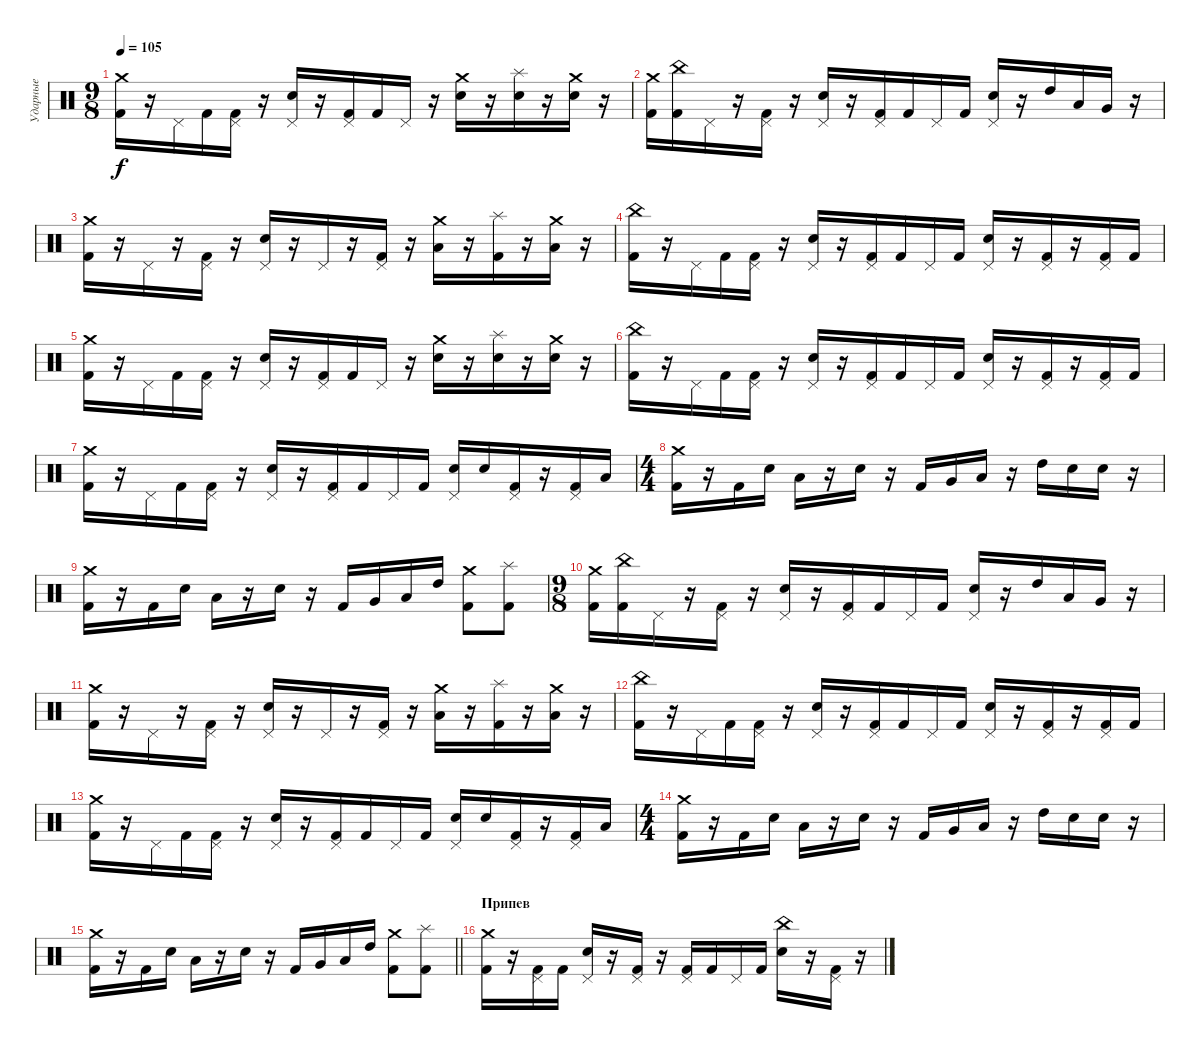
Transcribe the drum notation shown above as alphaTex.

\track ("Ударные" "Ударные") {instrument percussion}
\staff {score}
\articulation defaults
\ts (9 8)
\tempo 105
\clef neutral
\ks c
("Kick (hit) 2" "Crash medium (hit)").16{dy f} r.16 "Pedal Hi-Hat (hit)".16 "Kick (hit) 2".16 ("Kick (hit) 2" "Pedal Hi-Hat (hit)").16 r.16 ("Electric Snare (hit)" "Pedal Hi-Hat (hit)").16 r.16 ("Kick (hit) 2" "Pedal Hi-Hat (hit)").16 "Kick (hit) 2".16 "Pedal Hi-Hat (hit)".16 r.16 ("Electric Snare (hit)" "Crash medium (hit)").16 r.16 ("Electric Snare (hit)" "Splash (hit)").16 r.16 ("Electric Snare (hit)" "Crash medium (hit)").16 r.16 |
("Crash medium (hit)" "Kick (hit) 2").16 ("China (hit)" "Kick (hit) 2").16 "Pedal Hi-Hat (hit)".16 r.16 ("Kick (hit) 2" "Pedal Hi-Hat (hit)").16 r.16 ("Electric Snare (hit)" "Pedal Hi-Hat (hit)").16 r.16 ("Kick (hit) 2" "Pedal Hi-Hat (hit)").16 "Kick (hit) 2".16 "Pedal Hi-Hat (hit)".16 "Kick (hit) 2".16 ("Electric Snare (hit)" "Pedal Hi-Hat (hit)").16 r.16 "High Tom (hit)".16 "Low Tom (hit)".16 "Very Low Tom (hit)".16 r.16 |
("Crash medium (hit)" "Kick (hit) 2").16 r.16 "Pedal Hi-Hat (hit)".16 r.16 ("Kick (hit) 2" "Pedal Hi-Hat (hit)").16 r.16 ("Electric Snare (hit)" "Pedal Hi-Hat (hit)").16 r.16 "Pedal Hi-Hat (hit)".16 r.16 ("Kick (hit) 2" "Pedal Hi-Hat (hit)").16 r.16 ("Low Tom (hit)" "Crash medium (hit)").16 r.16 ("Kick (hit) 2" "Splash (hit)").16 r.16 ("Low Tom (hit)" "Crash medium (hit)").16 r.16 |
("Kick (hit) 2" "China (hit)").16 r.16 "Pedal Hi-Hat (hit)".16 "Kick (hit) 2".16 ("Kick (hit) 2" "Pedal Hi-Hat (hit)").16 r.16 ("Electric Snare (hit)" "Pedal Hi-Hat (hit)").16 r.16 ("Kick (hit) 2" "Pedal Hi-Hat (hit)").16 "Kick (hit) 2".16 "Pedal Hi-Hat (hit)".16 "Kick (hit) 2".16 ("Electric Snare (hit)" "Pedal Hi-Hat (hit)").16 r.16 ("Kick (hit) 2" "Pedal Hi-Hat (hit)").16 r.16 ("Kick (hit) 2" "Pedal Hi-Hat (hit)").16 "Kick (hit) 2".16 |
("Kick (hit) 2" "Crash medium (hit)").16 r.16 "Pedal Hi-Hat (hit)".16 "Kick (hit) 2".16 ("Kick (hit) 2" "Pedal Hi-Hat (hit)").16 r.16 ("Electric Snare (hit)" "Pedal Hi-Hat (hit)").16 r.16 ("Kick (hit) 2" "Pedal Hi-Hat (hit)").16 "Kick (hit) 2".16 "Pedal Hi-Hat (hit)".16 r.16 ("Electric Snare (hit)" "Crash medium (hit)").16 r.16 ("Electric Snare (hit)" "Splash (hit)").16 r.16 ("Electric Snare (hit)" "Crash medium (hit)").16 r.16 |
("Kick (hit) 2" "China (hit)").16 r.16 "Pedal Hi-Hat (hit)".16 "Kick (hit) 2".16 ("Kick (hit) 2" "Pedal Hi-Hat (hit)").16 r.16 ("Electric Snare (hit)" "Pedal Hi-Hat (hit)").16 r.16 ("Kick (hit) 2" "Pedal Hi-Hat (hit)").16 "Kick (hit) 2".16 "Pedal Hi-Hat (hit)".16 "Kick (hit) 2".16 ("Electric Snare (hit)" "Pedal Hi-Hat (hit)").16 r.16 ("Kick (hit) 2" "Pedal Hi-Hat (hit)").16 r.16 ("Kick (hit) 2" "Pedal Hi-Hat (hit)").16 "Kick (hit) 2".16 |
("Kick (hit) 2" "Crash medium (hit)").16 r.16 "Pedal Hi-Hat (hit)".16 "Kick (hit) 2".16 ("Kick (hit) 2" "Pedal Hi-Hat (hit)").16 r.16 ("Electric Snare (hit)" "Pedal Hi-Hat (hit)").16 r.16 ("Kick (hit) 2" "Pedal Hi-Hat (hit)").16 "Kick (hit) 2".16 "Pedal Hi-Hat (hit)".16 "Kick (hit) 2".16 ("Electric Snare (hit)" "Pedal Hi-Hat (hit)").16 "Electric Snare (hit)".16 ("Kick (hit) 2" "Pedal Hi-Hat (hit)").16 r.16 ("Kick (hit) 2" "Pedal Hi-Hat (hit)").16 "Low Tom (hit)".16 |
\ts (4 4)
("Crash medium (hit)" "Kick (hit) 2").16 r.16 "Kick (hit) 2".16 "Electric Snare (hit)".16 "Low Tom (hit)".16 r.16 "Electric Snare (hit)".16 r.16 "Kick (hit) 2".16 "Very Low Tom (hit)".16 "Low Tom (hit)".16 r.16 "High Tom (hit)".16 "Electric Snare (hit)".16 "Electric Snare (hit)".16 r.16 |
("Crash medium (hit)" "Kick (hit) 2").16 r.16 "Kick (hit) 2".16 "Electric Snare (hit)".16 "Low Tom (hit)".16 r.16 "Electric Snare (hit)".16 r.16 "Kick (hit) 2".16 "Very Low Tom (hit)".16 "Low Tom (hit)".16 "High Tom (hit)".16 ("Crash medium (hit)" "Kick (hit) 2").8 ("Splash (hit)" "Kick (hit) 2").8 |
\ts (9 8)
("Crash medium (hit)" "Kick (hit) 2").16 ("China (hit)" "Kick (hit) 2").16 "Pedal Hi-Hat (hit)".16 r.16 ("Kick (hit) 2" "Pedal Hi-Hat (hit)").16 r.16 ("Electric Snare (hit)" "Pedal Hi-Hat (hit)").16 r.16 ("Kick (hit) 2" "Pedal Hi-Hat (hit)").16 "Kick (hit) 2".16 "Pedal Hi-Hat (hit)".16 "Kick (hit) 2".16 ("Electric Snare (hit)" "Pedal Hi-Hat (hit)").16 r.16 "High Tom (hit)".16 "Low Tom (hit)".16 "Very Low Tom (hit)".16 r.16 |
("Crash medium (hit)" "Kick (hit) 2").16 r.16 "Pedal Hi-Hat (hit)".16 r.16 ("Kick (hit) 2" "Pedal Hi-Hat (hit)").16 r.16 ("Electric Snare (hit)" "Pedal Hi-Hat (hit)").16 r.16 "Pedal Hi-Hat (hit)".16 r.16 ("Kick (hit) 2" "Pedal Hi-Hat (hit)").16 r.16 ("Low Tom (hit)" "Crash medium (hit)").16 r.16 ("Kick (hit) 2" "Splash (hit)").16 r.16 ("Low Tom (hit)" "Crash medium (hit)").16 r.16 |
("Kick (hit) 2" "China (hit)").16 r.16 "Pedal Hi-Hat (hit)".16 "Kick (hit) 2".16 ("Kick (hit) 2" "Pedal Hi-Hat (hit)").16 r.16 ("Electric Snare (hit)" "Pedal Hi-Hat (hit)").16 r.16 ("Kick (hit) 2" "Pedal Hi-Hat (hit)").16 "Kick (hit) 2".16 "Pedal Hi-Hat (hit)".16 "Kick (hit) 2".16 ("Electric Snare (hit)" "Pedal Hi-Hat (hit)").16 r.16 ("Kick (hit) 2" "Pedal Hi-Hat (hit)").16 r.16 ("Kick (hit) 2" "Pedal Hi-Hat (hit)").16 "Kick (hit) 2".16 |
("Kick (hit) 2" "Crash medium (hit)").16 r.16 "Pedal Hi-Hat (hit)".16 "Kick (hit) 2".16 ("Kick (hit) 2" "Pedal Hi-Hat (hit)").16 r.16 ("Electric Snare (hit)" "Pedal Hi-Hat (hit)").16 r.16 ("Kick (hit) 2" "Pedal Hi-Hat (hit)").16 "Kick (hit) 2".16 "Pedal Hi-Hat (hit)".16 "Kick (hit) 2".16 ("Electric Snare (hit)" "Pedal Hi-Hat (hit)").16 "Electric Snare (hit)".16 ("Kick (hit) 2" "Pedal Hi-Hat (hit)").16 r.16 ("Kick (hit) 2" "Pedal Hi-Hat (hit)").16 "Low Tom (hit)".16 |
\ts (4 4)
("Crash medium (hit)" "Kick (hit) 2").16 r.16 "Kick (hit) 2".16 "Electric Snare (hit)".16 "Low Tom (hit)".16 r.16 "Electric Snare (hit)".16 r.16 "Kick (hit) 2".16 "Very Low Tom (hit)".16 "Low Tom (hit)".16 r.16 "High Tom (hit)".16 "Electric Snare (hit)".16 "Electric Snare (hit)".16 r.16 |
\barLineRight lightlight
("Crash medium (hit)" "Kick (hit) 2").16 r.16 "Kick (hit) 2".16 "Electric Snare (hit)".16 "Low Tom (hit)".16 r.16 "Electric Snare (hit)".16 r.16 "Kick (hit) 2".16 "Very Low Tom (hit)".16 "Low Tom (hit)".16 "High Tom (hit)".16 ("Crash medium (hit)" "Kick (hit) 2").8 ("Splash (hit)" "Kick (hit) 2").8 |
\section ("" "Припев")
("Crash medium (hit)" "Kick (hit) 2").16 r.16 ("Pedal Hi-Hat (hit)" "Kick (hit) 2").16 "Kick (hit) 2".16 ("Pedal Hi-Hat (hit)" "Electric Snare (hit)").16 r.16 ("Pedal Hi-Hat (hit)" "Kick (hit) 2").16 r.16 ("Pedal Hi-Hat (hit)" "Kick (hit) 2").16 "Kick (hit) 2".16 "Pedal Hi-Hat (hit)".16 "Kick (hit) 2".16 ("China (hit)" "Electric Snare (hit)").16 r.16 ("Pedal Hi-Hat (hit)" "Kick (hit) 2").16 r.16
